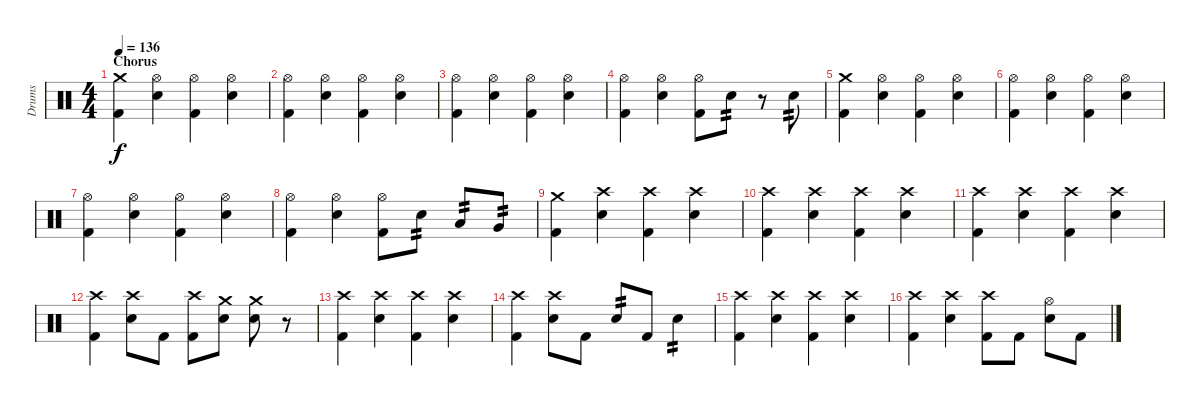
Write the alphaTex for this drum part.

\track ("Drums" "Drums") {instrument percussion}
\staff {score}
\articulation defaults
\ts (4 4)
\section ("" "Chorus")
\tempo 136
\clef neutral
\ks c
("Crash medium (hit)" "Kick (hit) 2").4{dy f} ("Hi-Hat (open)" "Snare (hit) 2").4 ("Hi-Hat (open)" "Kick (hit) 2").4 ("Hi-Hat (open)" "Snare (hit) 2").4 |
("Hi-Hat (open)" "Kick (hit) 2").4 ("Hi-Hat (open)" "Snare (hit) 2").4 ("Hi-Hat (open)" "Kick (hit) 2").4 ("Hi-Hat (open)" "Snare (hit) 2").4 |
("Hi-Hat (open)" "Kick (hit) 2").4 ("Hi-Hat (open)" "Snare (hit) 2").4 ("Hi-Hat (open)" "Kick (hit) 2").4 ("Hi-Hat (open)" "Snare (hit) 2").4 |
("Hi-Hat (open)" "Kick (hit) 2").4 ("Hi-Hat (open)" "Snare (hit) 2").4 ("Hi-Hat (open)" "Kick (hit) 2").8 "Snare (hit) 2".8{tp 2} r.8 "Snare (hit) 2".8{tp 2} |
("Crash medium (hit)" "Kick (hit) 2").4 ("Hi-Hat (open)" "Snare (hit) 2").4 ("Hi-Hat (open)" "Kick (hit) 2").4 ("Hi-Hat (open)" "Snare (hit) 2").4 |
("Hi-Hat (open)" "Kick (hit) 2").4 ("Hi-Hat (open)" "Snare (hit) 2").4 ("Hi-Hat (open)" "Kick (hit) 2").4 ("Hi-Hat (open)" "Snare (hit) 2").4 |
("Hi-Hat (open)" "Kick (hit) 2").4 ("Hi-Hat (open)" "Snare (hit) 2").4 ("Hi-Hat (open)" "Kick (hit) 2").4 ("Hi-Hat (open)" "Snare (hit) 2").4 |
("Hi-Hat (open)" "Kick (hit) 2").4 ("Hi-Hat (open)" "Snare (hit) 2").4 ("Hi-Hat (open)" "Kick (hit) 2").8 "Snare (hit) 2".8{tp 2} "Low Tom (hit)".8{tp 2} "Very Low Tom (hit)".8{tp 2} |
("Crash medium (hit)" "Kick (hit) 2").4 ("Crash high (hit)" "Snare (hit) 2").4 ("Crash high (hit)" "Kick (hit) 2").4 ("Crash high (hit)" "Snare (hit) 2").4 |
("Crash high (hit)" "Kick (hit) 2").4 ("Crash high (hit)" "Snare (hit) 2").4 ("Crash high (hit)" "Kick (hit) 2").4 ("Crash high (hit)" "Snare (hit) 2").4 |
("Crash high (hit)" "Kick (hit) 2").4 ("Crash high (hit)" "Snare (hit) 2").4 ("Crash high (hit)" "Kick (hit) 2").4 ("Crash high (hit)" "Snare (hit) 2").4 |
("Crash high (hit)" "Kick (hit) 2").4 ("Crash high (hit)" "Snare (hit) 2").8 "Kick (hit) 2".8 ("Crash high (hit)" "Kick (hit) 2").8 ("Crash medium (hit)" "Snare (hit) 2").8 ("Crash medium (hit)" "Snare (hit) 2").8 r.8 |
("Crash high (hit)" "Kick (hit) 2").4 ("Crash high (hit)" "Snare (hit) 2").4 ("Crash high (hit)" "Kick (hit) 2").4 ("Crash high (hit)" "Snare (hit) 2").4 |
("Crash high (hit)" "Kick (hit) 2").4 ("Crash high (hit)" "Snare (hit) 2").8 "Kick (hit) 2".8 "Snare (hit) 2".8{tp 2} "Kick (hit) 2".8 "Snare (hit) 2".4{tp 2} |
("Crash high (hit)" "Kick (hit) 2").4 ("Crash high (hit)" "Snare (hit) 2").4 ("Crash high (hit)" "Kick (hit) 2").4 ("Crash high (hit)" "Snare (hit) 2").4 |
("Crash high (hit)" "Kick (hit) 2").4 ("Crash high (hit)" "Snare (hit) 2").4 ("Crash high (hit)" "Kick (hit) 2").8 "Kick (hit) 2".8 ("Hi-Hat (open)" "Snare (hit) 2").8 "Kick (hit) 2".8
